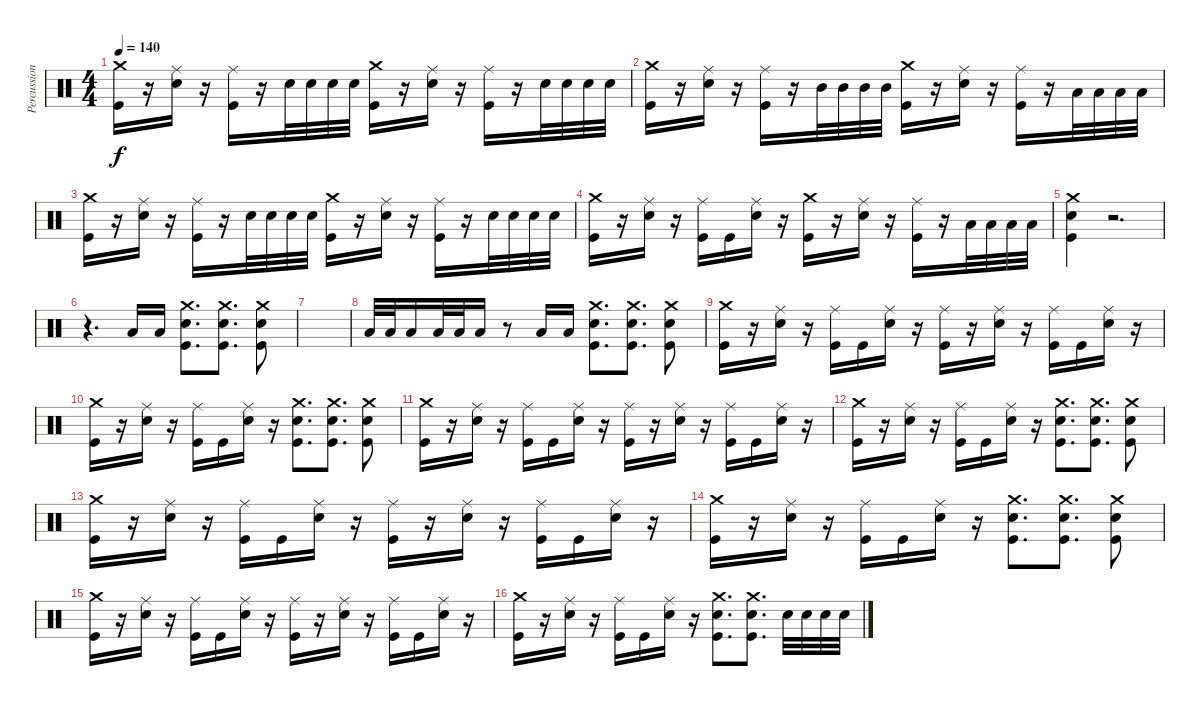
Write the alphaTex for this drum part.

\track ("Percussions( Gearbox )" "Percussion") {instrument percussion}
\staff {score}
\articulation defaults
\ts (4 4)
\tempo 140
\clef neutral
\ks c
("Crash medium (hit)" "Kick (hit)").16{dy f} r.16 ("Ride (middle)" "Snare (hit) 2").16 r.16 ("Ride (middle)" "Kick (hit)").16 r.16 "Snare (hit) 2".32 "Snare (hit) 2".32 "Snare (hit) 2".32 "Snare (hit) 2".32 ("Crash medium (hit)" "Kick (hit)").16 r.16 ("Ride (middle)" "Snare (hit) 2").16 r.16 ("Ride (middle)" "Kick (hit)").16 r.16 "Snare (hit) 2".32 "Snare (hit) 2".32 "Snare (hit) 2".32 "Snare (hit) 2".32 |
("Crash medium (hit)" "Kick (hit)").16 r.16 ("Ride (middle)" "Snare (hit) 2").16 r.16 ("Ride (middle)" "Kick (hit)").16 r.16 "Mid Tom (hit)".32 "Mid Tom (hit)".32 "Mid Tom (hit)".32 "Mid Tom (hit)".32 ("Crash medium (hit)" "Kick (hit)").16 r.16 ("Ride (middle)" "Snare (hit) 2").16 r.16 ("Ride (middle)" "Kick (hit)").16 r.16 "Low Tom (hit)".32 "Low Tom (hit)".32 "Low Tom (hit)".32 "Low Tom (hit)".32 |
("Crash medium (hit)" "Kick (hit)").16 r.16 ("Ride (middle)" "Snare (hit) 2").16 r.16 ("Ride (middle)" "Kick (hit)").16 r.16 "Snare (hit) 2".32 "Snare (hit) 2".32 "Snare (hit) 2".32 "Snare (hit) 2".32 ("Crash medium (hit)" "Kick (hit)").16 r.16 ("Ride (middle)" "Snare (hit) 2").16 r.16 ("Ride (middle)" "Kick (hit)").16 r.16 "Snare (hit) 2".32 "Snare (hit) 2".32 "Snare (hit) 2".32 "Snare (hit) 2".32 |
("Crash medium (hit)" "Kick (hit)").16 r.16 ("Ride (middle)" "Snare (hit) 2").16 r.16 ("Ride (middle)" "Kick (hit)").16 "Kick (hit)".16 ("Ride (middle)" "Snare (hit) 2").16 r.16 ("Crash medium (hit)" "Kick (hit)").16 r.16 ("Ride (middle)" "Snare (hit) 2").16 r.16 ("Ride (middle)" "Kick (hit)").16 r.16 "Low Tom (hit)".32 "Low Tom (hit)".32 "Low Tom (hit)".32 "Low Tom (hit)".32 |
("Crash medium (hit)" "Snare (hit) 2" "Kick (hit)").4 r.2{d} |
r.4{d} "Low Tom (hit)".16 "Low Tom (hit)".16 ("Crash medium (hit)" "Snare (hit) 2" "Kick (hit)").8{d} ("Crash medium (hit)" "Snare (hit) 2" "Kick (hit)").8{d} ("Crash medium (hit)" "Snare (hit) 2" "Kick (hit)").8 |
|
"Low Tom (hit)".32 "Low Tom (hit)".32 "Low Tom (hit)".16 "Low Tom (hit)".32 "Low Tom (hit)".32 "Low Tom (hit)".16 r.8 "Low Tom (hit)".16 "Low Tom (hit)".16 ("Crash medium (hit)" "Snare (hit) 2" "Kick (hit)").8{d} ("Crash medium (hit)" "Snare (hit) 2" "Kick (hit)").8{d} ("Crash medium (hit)" "Snare (hit) 2" "Kick (hit)").8 |
("Crash medium (hit)" "Kick (hit)").16 r.16 ("Ride (middle)" "Snare (hit) 2").16 r.16 ("Ride (middle)" "Kick (hit)").16 "Kick (hit)".16 ("Ride (middle)" "Snare (hit) 2").16 r.16 ("Ride (middle)" "Kick (hit)").16 r.16 ("Ride (middle)" "Snare (hit) 2").16 r.16 ("Ride (middle)" "Kick (hit)").16 "Kick (hit)".16 ("Ride (middle)" "Snare (hit) 2").16 r.16 |
("Crash medium (hit)" "Kick (hit)").16 r.16 ("Ride (middle)" "Snare (hit) 2").16 r.16 ("Ride (middle)" "Kick (hit)").16 "Kick (hit)".16 ("Ride (middle)" "Snare (hit) 2").16 r.16 ("Crash medium (hit)" "Snare (hit) 2" "Kick (hit)").8{d} ("Crash medium (hit)" "Snare (hit) 2" "Kick (hit)").8{d} ("Crash medium (hit)" "Snare (hit) 2" "Kick (hit)").8 |
("Crash medium (hit)" "Kick (hit)").16 r.16 ("Ride (middle)" "Snare (hit) 2").16 r.16 ("Ride (middle)" "Kick (hit)").16 "Kick (hit)".16 ("Ride (middle)" "Snare (hit) 2").16 r.16 ("Ride (middle)" "Kick (hit)").16 r.16 ("Ride (middle)" "Snare (hit) 2").16 r.16 ("Ride (middle)" "Kick (hit)").16 "Kick (hit)".16 ("Ride (middle)" "Snare (hit) 2").16 r.16 |
("Crash medium (hit)" "Kick (hit)").16 r.16 ("Ride (middle)" "Snare (hit) 2").16 r.16 ("Ride (middle)" "Kick (hit)").16 "Kick (hit)".16 ("Ride (middle)" "Snare (hit) 2").16 r.16 ("Crash medium (hit)" "Snare (hit) 2" "Kick (hit)").8{d} ("Crash medium (hit)" "Snare (hit) 2" "Kick (hit)").8{d} ("Crash medium (hit)" "Snare (hit) 2" "Kick (hit)").8 |
("Crash medium (hit)" "Kick (hit)").16 r.16 ("Ride (middle)" "Snare (hit) 2").16 r.16 ("Ride (middle)" "Kick (hit)").16 "Kick (hit)".16 ("Ride (middle)" "Snare (hit) 2").16 r.16 ("Ride (middle)" "Kick (hit)").16 r.16 ("Ride (middle)" "Snare (hit) 2").16 r.16 ("Ride (middle)" "Kick (hit)").16 "Kick (hit)".16 ("Ride (middle)" "Snare (hit) 2").16 r.16 |
("Crash medium (hit)" "Kick (hit)").16 r.16 ("Ride (middle)" "Snare (hit) 2").16 r.16 ("Ride (middle)" "Kick (hit)").16 "Kick (hit)".16 ("Ride (middle)" "Snare (hit) 2").16 r.16 ("Crash medium (hit)" "Snare (hit) 2" "Kick (hit)").8{d} ("Crash medium (hit)" "Snare (hit) 2" "Kick (hit)").8{d} ("Crash medium (hit)" "Snare (hit) 2" "Kick (hit)").8 |
("Crash medium (hit)" "Kick (hit)").16 r.16 ("Ride (middle)" "Snare (hit) 2").16 r.16 ("Ride (middle)" "Kick (hit)").16 "Kick (hit)".16 ("Ride (middle)" "Snare (hit) 2").16 r.16 ("Ride (middle)" "Kick (hit)").16 r.16 ("Ride (middle)" "Snare (hit) 2").16 r.16 ("Ride (middle)" "Kick (hit)").16 "Kick (hit)".16 ("Ride (middle)" "Snare (hit) 2").16 r.16 |
("Crash medium (hit)" "Kick (hit)").16 r.16 ("Ride (middle)" "Snare (hit) 2").16 r.16 ("Ride (middle)" "Kick (hit)").16 "Kick (hit)".16 ("Ride (middle)" "Snare (hit) 2").16 r.16 ("Crash medium (hit)" "Snare (hit) 2" "Kick (hit)").8{d} ("Crash medium (hit)" "Snare (hit) 2" "Kick (hit)").8{d} "Snare (hit) 2".32 "Snare (hit) 2".32 "Snare (hit) 2".32 "Snare (hit) 2".32
